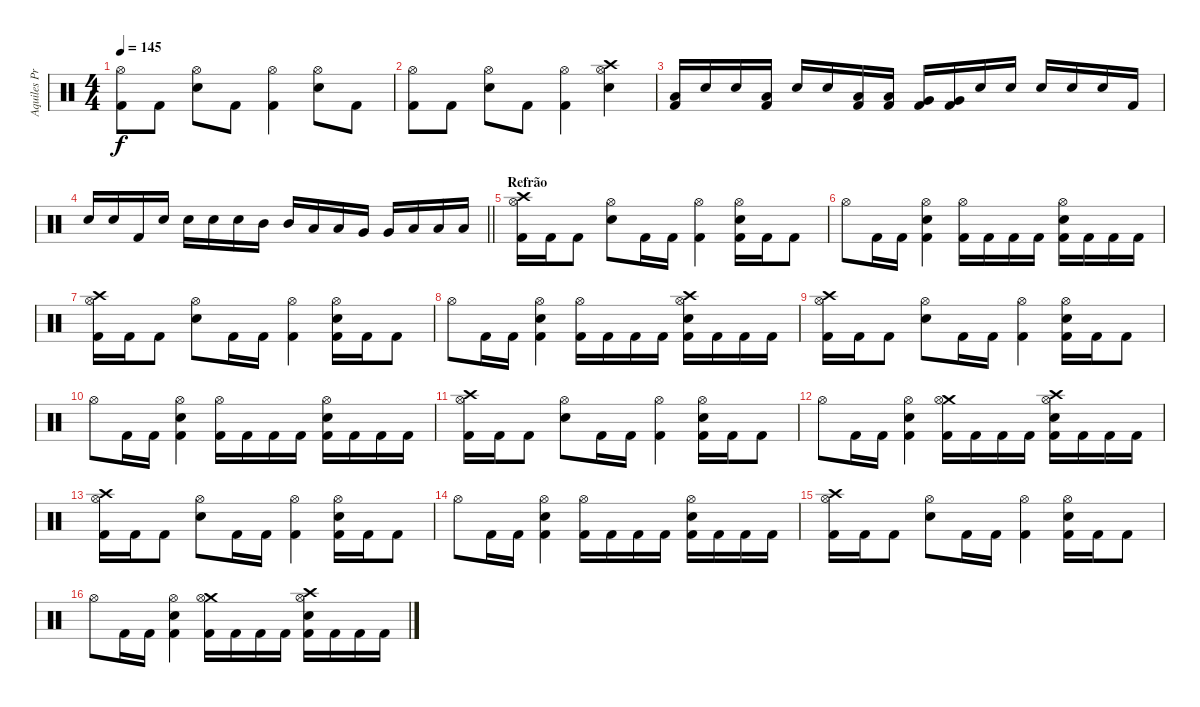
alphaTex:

\track ("Aquiles Priester" "Aquiles Pr") {instrument percussion}
\staff {score}
\articulation defaults
\ts (4 4)
\tempo 145
\clef neutral
\ks c
("Hi-Hat (open)" "Kick (hit) 2").8{dy f} "Kick (hit) 2".8 ("Hi-Hat (open)" "Electric Snare (hit)").8 "Kick (hit) 2".8 ("Hi-Hat (open)" "Kick (hit) 2").4 ("Hi-Hat (open)" "Electric Snare (hit)").8 "Kick (hit) 2".8 |
("Hi-Hat (open)" "Kick (hit) 2").8 "Kick (hit) 2".8 ("Hi-Hat (open)" "Electric Snare (hit)").8 "Kick (hit) 2".8 ("Hi-Hat (open)" "Kick (hit) 2").4 ("Crash high (hit)" "Hi-Hat (open)" "Electric Snare (hit)").4 |
("Low Tom (hit)" "Kick (hit) 2").16 "Electric Snare (hit)".16 "Electric Snare (hit)".16 ("Low Tom (hit)" "Kick (hit) 2").16 "Electric Snare (hit)".16 "Electric Snare (hit)".16 ("Low Tom (hit)" "Kick (hit) 2").16 ("Low Tom (hit)" "Kick (hit) 2").16 ("Very Low Tom (hit)" "Kick (hit) 2").16 ("Very Low Tom (hit)" "Kick (hit) 2").16 "Electric Snare (hit)".16 "Electric Snare (hit)".16 "Electric Snare (hit)".16 "Electric Snare (hit)".16 "Electric Snare (hit)".16 "Kick (hit) 2".16 |
\barLineRight lightlight "Electric Snare (hit)".16 "Electric Snare (hit)".16 "Kick (hit) 2".16 "Electric Snare (hit)".16 "Electric Snare (hit)".16 "Electric Snare (hit)".16 "Electric Snare (hit)".16 "Mid Tom (hit)".16 "Mid Tom (hit)".16 "Low Tom (hit)".16 "Low Tom (hit)".16 "Very Low Tom (hit)".16 "Very Low Tom (hit)".16 "Low Floor Tom (hit)".16 "Low Floor Tom (hit)".16 "Low Floor Tom (hit)".16
|
\section ("" "Refrão")
("Crash high (hit)" "Hi-Hat (open)" "Kick (hit) 2").16 "Kick (hit) 2".16 "Kick (hit) 2".8 ("Hi-Hat (open)" "Electric Snare (hit)").8 "Kick (hit) 2".16 "Kick (hit) 2".16 ("Hi-Hat (open)" "Kick (hit) 2").4 ("Hi-Hat (open)" "Electric Snare (hit)" "Kick (hit) 2").16 "Kick (hit) 2".16 "Kick (hit) 2".8 |
"Hi-Hat (open)".8 "Kick (hit) 2".16 "Kick (hit) 2".16 ("Hi-Hat (open)" "Electric Snare (hit)" "Kick (hit) 2").4 ("Hi-Hat (open)" "Kick (hit) 2").16 "Kick (hit) 2".16 "Kick (hit) 2".16 "Kick (hit) 2".16 ("Hi-Hat (open)" "Electric Snare (hit)" "Kick (hit) 2").16 "Kick (hit) 2".16 "Kick (hit) 2".16 "Kick (hit) 2".16 |
("Crash high (hit)" "Hi-Hat (open)" "Kick (hit) 2").16 "Kick (hit) 2".16 "Kick (hit) 2".8 ("Hi-Hat (open)" "Electric Snare (hit)").8 "Kick (hit) 2".16 "Kick (hit) 2".16 ("Hi-Hat (open)" "Kick (hit) 2").4 ("Hi-Hat (open)" "Electric Snare (hit)" "Kick (hit) 2").16 "Kick (hit) 2".16 "Kick (hit) 2".8 |
"Hi-Hat (open)".8 "Kick (hit) 2".16 "Kick (hit) 2".16 ("Hi-Hat (open)" "Electric Snare (hit)" "Kick (hit) 2").4 ("Hi-Hat (open)" "Kick (hit) 2").16 "Kick (hit) 2".16 "Kick (hit) 2".16 "Kick (hit) 2".16 ("Crash high (hit)" "Hi-Hat (open)" "Electric Snare (hit)" "Kick (hit) 2").16 "Kick (hit) 2".16 "Kick (hit) 2".16 "Kick (hit) 2".16 |
("Crash high (hit)" "Hi-Hat (open)" "Kick (hit) 2").16 "Kick (hit) 2".16 "Kick (hit) 2".8 ("Hi-Hat (open)" "Electric Snare (hit)").8 "Kick (hit) 2".16 "Kick (hit) 2".16 ("Hi-Hat (open)" "Kick (hit) 2").4 ("Hi-Hat (open)" "Electric Snare (hit)" "Kick (hit) 2").16 "Kick (hit) 2".16 "Kick (hit) 2".8 |
"Hi-Hat (open)".8 "Kick (hit) 2".16 "Kick (hit) 2".16 ("Hi-Hat (open)" "Electric Snare (hit)" "Kick (hit) 2").4 ("Hi-Hat (open)" "Kick (hit) 2").16 "Kick (hit) 2".16 "Kick (hit) 2".16 "Kick (hit) 2".16 ("Hi-Hat (open)" "Electric Snare (hit)" "Kick (hit) 2").16 "Kick (hit) 2".16 "Kick (hit) 2".16 "Kick (hit) 2".16 |
("Crash high (hit)" "Hi-Hat (open)" "Kick (hit) 2").16 "Kick (hit) 2".16 "Kick (hit) 2".8 ("Hi-Hat (open)" "Electric Snare (hit)").8 "Kick (hit) 2".16 "Kick (hit) 2".16 ("Hi-Hat (open)" "Kick (hit) 2").4 ("Hi-Hat (open)" "Electric Snare (hit)" "Kick (hit) 2").16 "Kick (hit) 2".16 "Kick (hit) 2".8 |
"Hi-Hat (open)".8 "Kick (hit) 2".16 "Kick (hit) 2".16 ("Hi-Hat (open)" "Electric Snare (hit)" "Kick (hit) 2").4 ("Crash medium (hit)" "Hi-Hat (open)" "Kick (hit) 2").16 "Kick (hit) 2".16 "Kick (hit) 2".16 "Kick (hit) 2".16 ("Crash high (hit)" "Hi-Hat (open)" "Electric Snare (hit)" "Kick (hit) 2").16 "Kick (hit) 2".16 "Kick (hit) 2".16 "Kick (hit) 2".16 |
("Crash high (hit)" "Hi-Hat (open)" "Kick (hit) 2").16 "Kick (hit) 2".16 "Kick (hit) 2".8 ("Hi-Hat (open)" "Electric Snare (hit)").8 "Kick (hit) 2".16 "Kick (hit) 2".16 ("Hi-Hat (open)" "Kick (hit) 2").4 ("Hi-Hat (open)" "Electric Snare (hit)" "Kick (hit) 2").16 "Kick (hit) 2".16 "Kick (hit) 2".8 |
"Hi-Hat (open)".8 "Kick (hit) 2".16 "Kick (hit) 2".16 ("Hi-Hat (open)" "Electric Snare (hit)" "Kick (hit) 2").4 ("Hi-Hat (open)" "Kick (hit) 2").16 "Kick (hit) 2".16 "Kick (hit) 2".16 "Kick (hit) 2".16 ("Hi-Hat (open)" "Electric Snare (hit)" "Kick (hit) 2").16 "Kick (hit) 2".16 "Kick (hit) 2".16 "Kick (hit) 2".16 |
("Crash high (hit)" "Hi-Hat (open)" "Kick (hit) 2").16 "Kick (hit) 2".16 "Kick (hit) 2".8 ("Hi-Hat (open)" "Electric Snare (hit)").8 "Kick (hit) 2".16 "Kick (hit) 2".16 ("Hi-Hat (open)" "Kick (hit) 2").4 ("Hi-Hat (open)" "Electric Snare (hit)" "Kick (hit) 2").16 "Kick (hit) 2".16 "Kick (hit) 2".8 |
"Hi-Hat (open)".8 "Kick (hit) 2".16 "Kick (hit) 2".16 ("Hi-Hat (open)" "Electric Snare (hit)" "Kick (hit) 2").4 ("Crash medium (hit)" "Hi-Hat (open)" "Kick (hit) 2").16 "Kick (hit) 2".16 "Kick (hit) 2".16 "Kick (hit) 2".16 ("Crash high (hit)" "Hi-Hat (open)" "Electric Snare (hit)" "Kick (hit) 2").16 "Kick (hit) 2".16 "Kick (hit) 2".16 "Kick (hit) 2".16
